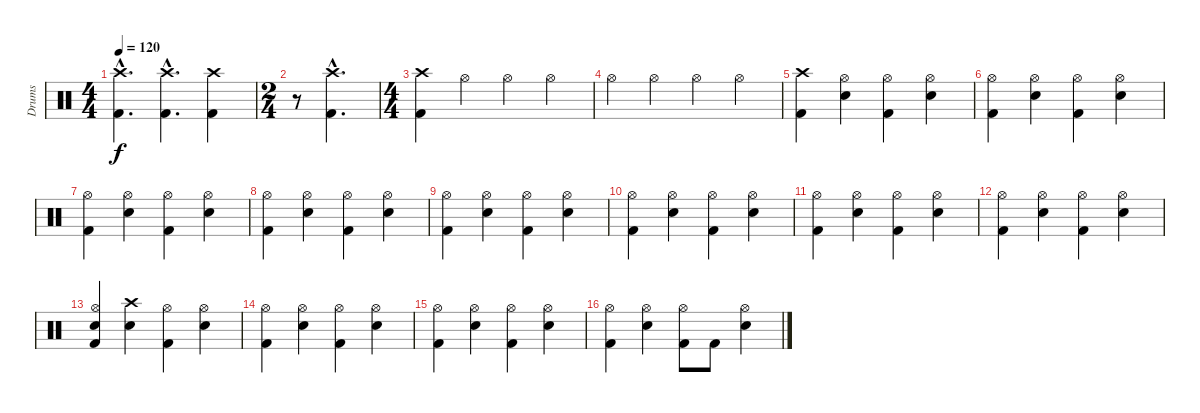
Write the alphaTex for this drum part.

\track ("Drums" "Drums") {instrument percussion}
\staff {score}
\articulation defaults
\ts (4 4)
\tempo 120
\clef neutral
\ks c
("Crash high (hit)"{hac} "Kick (hit) 2"{hac}).4{d dy f} ("Crash high (hit)"{hac} "Kick (hit) 2"{hac}).4{d} ("Crash high (hit)" "Kick (hit) 2").4 |
\ts (2 4)
r.8 ("Crash high (hit)"{hac} "Kick (hit) 2"{hac}).4{d} |
\ts (4 4)
("Crash high (hit)" "Kick (hit) 2").4 "Hi-Hat (open)".4 "Hi-Hat (open)".4 "Hi-Hat (open)".4 |
"Hi-Hat (open)".4 "Hi-Hat (open)".4 "Hi-Hat (open)".4 "Hi-Hat (open)".4 |
("Crash high (hit)" "Kick (hit) 2").4 ("Hi-Hat (open)" "Electric Snare (hit)").4 ("Hi-Hat (open)" "Kick (hit) 2").4 ("Hi-Hat (open)" "Electric Snare (hit)").4 |
("Hi-Hat (open)" "Kick (hit) 2").4 ("Hi-Hat (open)" "Electric Snare (hit)").4 ("Hi-Hat (open)" "Kick (hit) 2").4 ("Hi-Hat (open)" "Electric Snare (hit)").4 |
("Hi-Hat (open)" "Kick (hit) 2").4 ("Hi-Hat (open)" "Electric Snare (hit)").4 ("Hi-Hat (open)" "Kick (hit) 2").4 ("Hi-Hat (open)" "Electric Snare (hit)").4 |
("Hi-Hat (open)" "Kick (hit) 2").4 ("Hi-Hat (open)" "Electric Snare (hit)").4 ("Hi-Hat (open)" "Kick (hit) 2").4 ("Hi-Hat (open)" "Electric Snare (hit)").4 |
("Hi-Hat (open)" "Kick (hit) 2").4 ("Hi-Hat (open)" "Electric Snare (hit)").4 ("Hi-Hat (open)" "Kick (hit) 2").4 ("Hi-Hat (open)" "Electric Snare (hit)").4 |
("Hi-Hat (open)" "Kick (hit) 2").4 ("Hi-Hat (open)" "Electric Snare (hit)").4 ("Hi-Hat (open)" "Kick (hit) 2").4 ("Hi-Hat (open)" "Electric Snare (hit)").4 |
("Hi-Hat (open)" "Kick (hit) 2").4 ("Hi-Hat (open)" "Electric Snare (hit)").4 ("Hi-Hat (open)" "Kick (hit) 2").4 ("Hi-Hat (open)" "Electric Snare (hit)").4 |
("Hi-Hat (open)" "Kick (hit) 2").4 ("Hi-Hat (open)" "Electric Snare (hit)").4 ("Hi-Hat (open)" "Kick (hit) 2").4 ("Hi-Hat (open)" "Electric Snare (hit)").4 |
("Hi-Hat (open)" "Electric Snare (hit)" "Kick (hit) 2").4 ("Crash high (hit)" "Electric Snare (hit)").4 ("Hi-Hat (open)" "Kick (hit) 2").4 ("Hi-Hat (open)" "Electric Snare (hit)").4 |
("Hi-Hat (open)" "Kick (hit) 2").4 ("Hi-Hat (open)" "Electric Snare (hit)").4 ("Hi-Hat (open)" "Kick (hit) 2").4 ("Hi-Hat (open)" "Electric Snare (hit)").4 |
("Hi-Hat (open)" "Kick (hit) 2").4 ("Hi-Hat (open)" "Electric Snare (hit)").4 ("Hi-Hat (open)" "Kick (hit) 2").4 ("Hi-Hat (open)" "Electric Snare (hit)").4 |
("Hi-Hat (open)" "Kick (hit) 2").4 ("Hi-Hat (open)" "Electric Snare (hit)").4 ("Hi-Hat (open)" "Kick (hit) 2").8 "Kick (hit) 2".8 ("Hi-Hat (open)" "Electric Snare (hit)").4
